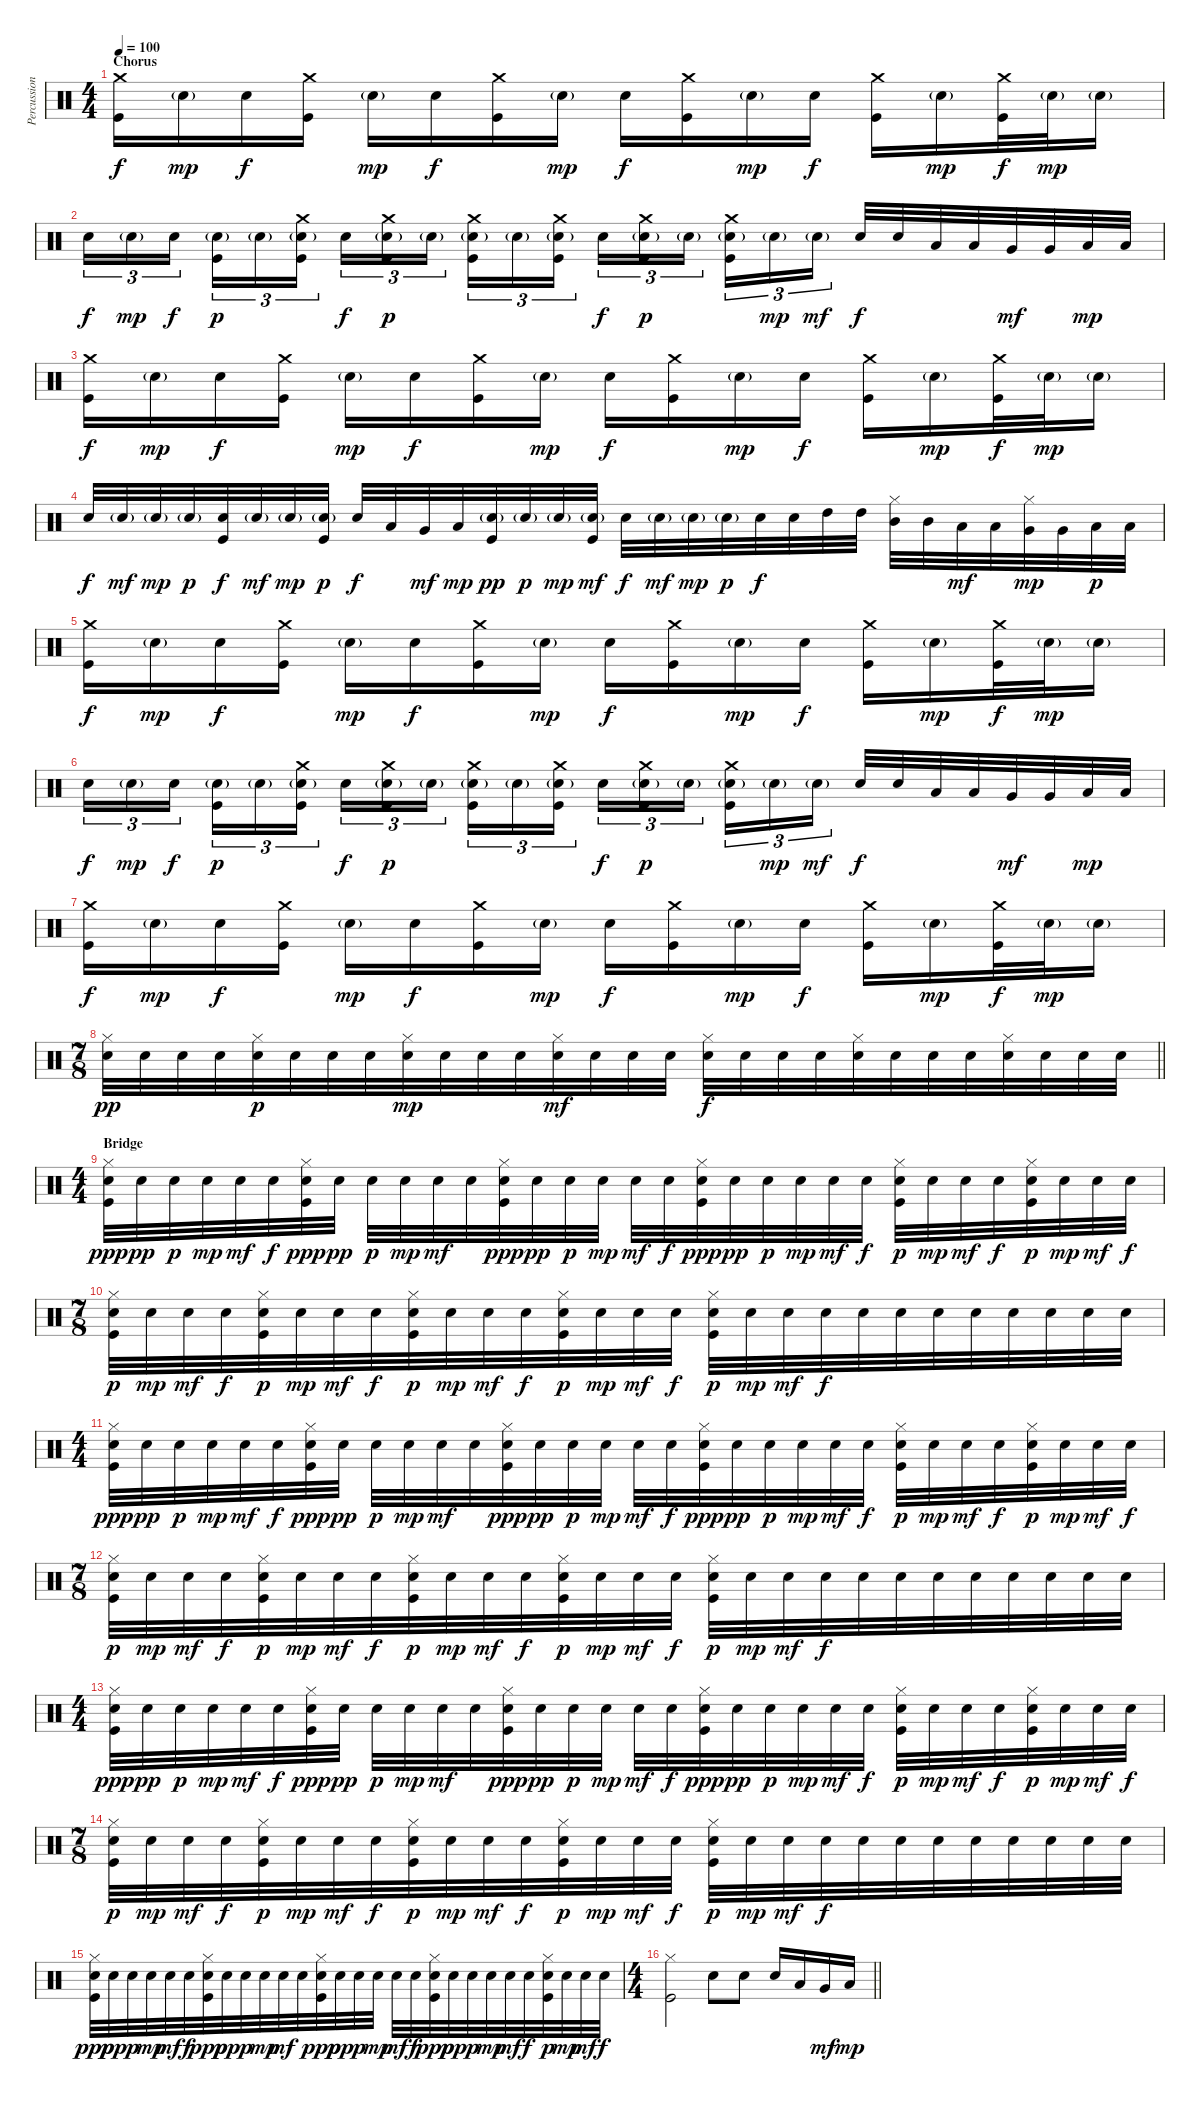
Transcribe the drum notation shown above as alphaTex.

\track ("Percussion" "Percussion") {instrument percussion}
\staff {score}
\articulation defaults
\ts (4 4)
\section ("" "Chorus")
\tempo 100
\clef neutral
\ks c
("Crash medium (hit)" "Kick (hit)").16{dy f} "Snare (hit) 2"{g}.16{dy mp} "Snare (hit) 2".16{dy f} ("Crash medium (hit)" "Kick (hit)").16 "Snare (hit) 2"{g}.16{dy mp} "Snare (hit) 2".16{dy f} ("Crash medium (hit)" "Kick (hit)").16 "Snare (hit) 2"{g}.16{dy mp} "Snare (hit) 2".16{dy f} ("Crash medium (hit)" "Kick (hit)").16 "Snare (hit) 2"{g}.16{dy mp} "Snare (hit) 2".16{dy f} ("Crash medium (hit)" "Kick (hit)").16 "Snare (hit) 2"{g}.16{dy mp} ("Crash medium (hit)" "Kick (hit)").32{dy f} "Snare (hit) 2"{g}.32{dy mp} "Snare (hit) 2"{g}.16 |
"Snare (hit) 2".16{tu (3 2) dy f} "Snare (hit) 2"{g}.16{tu (3 2) dy mp} "Snare (hit) 2".16{tu (3 2) dy f beam splitsecondary} ("Snare (hit) 2"{g} "Kick (hit)").16{tu (3 2) dy p} "Snare (hit) 2"{g}.16{tu (3 2)} ("Crash medium (hit)" "Snare (hit) 2"{g} "Kick (hit)").16{tu (3 2)} "Snare (hit) 2".16{tu (3 2) dy f} ("Crash medium (hit)" "Snare (hit) 2"{g} "Kick (hit)").16{tu (3 2) dy p} "Snare (hit) 2"{g}.16{tu (3 2) beam splitsecondary} ("Crash medium (hit)" "Snare (hit) 2"{g} "Kick (hit)").16{tu (3 2)} "Snare (hit) 2"{g}.16{tu (3 2)} ("Crash medium (hit)" "Snare (hit) 2"{g} "Kick (hit)").16{tu (3 2)} "Snare (hit) 2".16{tu (3 2) dy f} ("Crash medium (hit)" "Snare (hit) 2"{g} "Kick (hit)").16{tu (3 2) dy p} "Snare (hit) 2"{g}.16{tu (3 2) beam splitsecondary} ("Crash medium (hit)" "Snare (hit) 2"{g} "Kick (hit)").16{tu (3 2)} "Snare (hit) 2"{g}.16{tu (3 2) dy mp} "Snare (hit) 2"{g}.16{tu (3 2) dy mf} "Snare (hit) 2".32{dy f} "Snare (hit) 2".32 "Low Tom (hit)".32 "Low Tom (hit)".32 "Very Low Tom (hit)".32{dy mf} "Very Low Tom (hit)".32 "Low Floor Tom (hit)".32{dy mp} "Low Floor Tom (hit)".32 |
("Crash medium (hit)" "Kick (hit)").16{dy f} "Snare (hit) 2"{g}.16{dy mp} "Snare (hit) 2".16{dy f} ("Crash medium (hit)" "Kick (hit)").16 "Snare (hit) 2"{g}.16{dy mp} "Snare (hit) 2".16{dy f} ("Crash medium (hit)" "Kick (hit)").16 "Snare (hit) 2"{g}.16{dy mp} "Snare (hit) 2".16{dy f} ("Crash medium (hit)" "Kick (hit)").16 "Snare (hit) 2"{g}.16{dy mp} "Snare (hit) 2".16{dy f} ("Crash medium (hit)" "Kick (hit)").16 "Snare (hit) 2"{g}.16{dy mp} ("Crash medium (hit)" "Kick (hit)").32{dy f} "Snare (hit) 2"{g}.32{dy mp} "Snare (hit) 2"{g}.16 |
"Snare (hit) 2".32{dy f} "Snare (hit) 2"{g}.32{dy mf} "Snare (hit) 2"{g}.32{dy mp} "Snare (hit) 2"{g}.32{dy p} ("Snare (hit) 2" "Kick (hit)").32{dy f} "Snare (hit) 2"{g}.32{dy mf} "Snare (hit) 2"{g}.32{dy mp} ("Snare (hit) 2"{g} "Kick (hit)").32{dy p} "Snare (hit) 2".32{dy f} "Low Tom (hit)".32 "Very Low Tom (hit)".32{dy mf} "Low Floor Tom (hit)".32{dy mp} ("Snare (hit) 2"{g} "Kick (hit)").32{dy pp} "Snare (hit) 2"{g}.32{dy p} "Snare (hit) 2"{g}.32{dy mp} ("Snare (hit) 2"{g} "Kick (hit)").32{dy mf} "Snare (hit) 2".32{dy f} "Snare (hit) 2"{g}.32{dy mf} "Snare (hit) 2"{g}.32{dy mp} "Snare (hit) 2"{g}.32{dy p} "Snare (hit) 2".32{dy f} "Snare (hit) 2".32 "High Tom (hit)".32 "High Tom (hit)".32 ("Hi-Hat (closed)" "Mid Tom (hit)").32 "Mid Tom (hit)".32 "Low Tom (hit)".32{dy mf} "Low Tom (hit)".32 ("Hi-Hat (closed)" "Very Low Tom (hit)").32{dy mp} "Very Low Tom (hit)".32 "Low Floor Tom (hit)".32{dy p} "Low Floor Tom (hit)".32 |
("Crash medium (hit)" "Kick (hit)").16{dy f} "Snare (hit) 2"{g}.16{dy mp} "Snare (hit) 2".16{dy f} ("Crash medium (hit)" "Kick (hit)").16 "Snare (hit) 2"{g}.16{dy mp} "Snare (hit) 2".16{dy f} ("Crash medium (hit)" "Kick (hit)").16 "Snare (hit) 2"{g}.16{dy mp} "Snare (hit) 2".16{dy f} ("Crash medium (hit)" "Kick (hit)").16 "Snare (hit) 2"{g}.16{dy mp} "Snare (hit) 2".16{dy f} ("Crash medium (hit)" "Kick (hit)").16 "Snare (hit) 2"{g}.16{dy mp} ("Crash medium (hit)" "Kick (hit)").32{dy f} "Snare (hit) 2"{g}.32{dy mp} "Snare (hit) 2"{g}.16 |
"Snare (hit) 2".16{tu (3 2) dy f} "Snare (hit) 2"{g}.16{tu (3 2) dy mp} "Snare (hit) 2".16{tu (3 2) dy f beam splitsecondary} ("Snare (hit) 2"{g} "Kick (hit)").16{tu (3 2) dy p} "Snare (hit) 2"{g}.16{tu (3 2)} ("Crash medium (hit)" "Snare (hit) 2"{g} "Kick (hit)").16{tu (3 2)} "Snare (hit) 2".16{tu (3 2) dy f} ("Crash medium (hit)" "Snare (hit) 2"{g} "Kick (hit)").16{tu (3 2) dy p} "Snare (hit) 2"{g}.16{tu (3 2) beam splitsecondary} ("Crash medium (hit)" "Snare (hit) 2"{g} "Kick (hit)").16{tu (3 2)} "Snare (hit) 2"{g}.16{tu (3 2)} ("Crash medium (hit)" "Snare (hit) 2"{g} "Kick (hit)").16{tu (3 2)} "Snare (hit) 2".16{tu (3 2) dy f} ("Crash medium (hit)" "Snare (hit) 2"{g} "Kick (hit)").16{tu (3 2) dy p} "Snare (hit) 2"{g}.16{tu (3 2) beam splitsecondary} ("Crash medium (hit)" "Snare (hit) 2"{g} "Kick (hit)").16{tu (3 2)} "Snare (hit) 2"{g}.16{tu (3 2) dy mp} "Snare (hit) 2"{g}.16{tu (3 2) dy mf} "Snare (hit) 2".32{dy f} "Snare (hit) 2".32 "Low Tom (hit)".32 "Low Tom (hit)".32 "Very Low Tom (hit)".32{dy mf} "Very Low Tom (hit)".32 "Low Floor Tom (hit)".32{dy mp} "Low Floor Tom (hit)".32 |
("Crash medium (hit)" "Kick (hit)").16{dy f} "Snare (hit) 2"{g}.16{dy mp} "Snare (hit) 2".16{dy f} ("Crash medium (hit)" "Kick (hit)").16 "Snare (hit) 2"{g}.16{dy mp} "Snare (hit) 2".16{dy f} ("Crash medium (hit)" "Kick (hit)").16 "Snare (hit) 2"{g}.16{dy mp} "Snare (hit) 2".16{dy f} ("Crash medium (hit)" "Kick (hit)").16 "Snare (hit) 2"{g}.16{dy mp} "Snare (hit) 2".16{dy f} ("Crash medium (hit)" "Kick (hit)").16 "Snare (hit) 2"{g}.16{dy mp} ("Crash medium (hit)" "Kick (hit)").32{dy f} "Snare (hit) 2"{g}.32{dy mp} "Snare (hit) 2"{g}.16 |
\ts (7 8)
\barLineRight lightlight
("Hi-Hat (closed)" "Snare (hit) 2").32{dy pp} "Snare (hit) 2".32 "Snare (hit) 2".32 "Snare (hit) 2".32 ("Hi-Hat (closed)" "Snare (hit) 2").32{dy p} "Snare (hit) 2".32 "Snare (hit) 2".32 "Snare (hit) 2".32 ("Hi-Hat (closed)" "Snare (hit) 2").32{dy mp} "Snare (hit) 2".32 "Snare (hit) 2".32 "Snare (hit) 2".32 ("Hi-Hat (closed)" "Snare (hit) 2").32{dy mf} "Snare (hit) 2".32 "Snare (hit) 2".32 "Snare (hit) 2".32 ("Hi-Hat (closed)" "Snare (hit) 2").32{dy f} "Snare (hit) 2".32 "Snare (hit) 2".32 "Snare (hit) 2".32 ("Hi-Hat (closed)" "Snare (hit) 2").32 "Snare (hit) 2".32 "Snare (hit) 2".32 "Snare (hit) 2".32 ("Hi-Hat (closed)" "Snare (hit) 2").32 "Snare (hit) 2".32 "Snare (hit) 2".32 "Snare (hit) 2".32 |
\ts (4 4)
\section ("" "Bridge")
("Hi-Hat (closed)" "Snare (hit) 2" "Kick (hit)").32{dy ppp} "Snare (hit) 2".32{dy pp} "Snare (hit) 2".32{dy p} "Snare (hit) 2".32{dy mp} "Snare (hit) 2".32{dy mf} "Snare (hit) 2".32{dy f} ("Hi-Hat (closed)" "Snare (hit) 2" "Kick (hit)").32{dy ppp} "Snare (hit) 2".32{dy pp} "Snare (hit) 2".32{dy p} "Snare (hit) 2".32{dy mp} "Snare (hit) 2".32{dy mf} "Snare (hit) 2".32 ("Hi-Hat (closed)" "Snare (hit) 2" "Kick (hit)").32{dy ppp} "Snare (hit) 2".32{dy pp} "Snare (hit) 2".32{dy p} "Snare (hit) 2".32{dy mp} "Snare (hit) 2".32{dy mf} "Snare (hit) 2".32{dy f} ("Hi-Hat (closed)" "Snare (hit) 2" "Kick (hit)").32{dy ppp} "Snare (hit) 2".32{dy pp} "Snare (hit) 2".32{dy p} "Snare (hit) 2".32{dy mp} "Snare (hit) 2".32{dy mf} "Snare (hit) 2".32{dy f} ("Hi-Hat (closed)" "Snare (hit) 2" "Kick (hit)").32{dy p} "Snare (hit) 2".32{dy mp} "Snare (hit) 2".32{dy mf} "Snare (hit) 2".32{dy f} ("Hi-Hat (closed)" "Snare (hit) 2" "Kick (hit)").32{dy p} "Snare (hit) 2".32{dy mp} "Snare (hit) 2".32{dy mf} "Snare (hit) 2".32{dy f} |
\ts (7 8)
("Hi-Hat (closed)" "Snare (hit) 2" "Kick (hit)").32{dy p} "Snare (hit) 2".32{dy mp} "Snare (hit) 2".32{dy mf} "Snare (hit) 2".32{dy f} ("Hi-Hat (closed)" "Snare (hit) 2" "Kick (hit)").32{dy p} "Snare (hit) 2".32{dy mp} "Snare (hit) 2".32{dy mf} "Snare (hit) 2".32{dy f} ("Hi-Hat (closed)" "Snare (hit) 2" "Kick (hit)").32{dy p} "Snare (hit) 2".32{dy mp} "Snare (hit) 2".32{dy mf} "Snare (hit) 2".32{dy f} ("Hi-Hat (closed)" "Snare (hit) 2" "Kick (hit)").32{dy p} "Snare (hit) 2".32{dy mp} "Snare (hit) 2".32{dy mf} "Snare (hit) 2".32{dy f} ("Hi-Hat (closed)" "Snare (hit) 2" "Kick (hit)").32{dy p} "Snare (hit) 2".32{dy mp} "Snare (hit) 2".32{dy mf} "Snare (hit) 2".32{dy f} "Snare (hit) 2".32 "Snare (hit) 2".32 "Snare (hit) 2".32 "Snare (hit) 2".32 "Snare (hit) 2".32 "Snare (hit) 2".32 "Snare (hit) 2".32 "Snare (hit) 2".32 |
\ts (4 4)
("Hi-Hat (closed)" "Snare (hit) 2" "Kick (hit)").32{dy ppp} "Snare (hit) 2".32{dy pp} "Snare (hit) 2".32{dy p} "Snare (hit) 2".32{dy mp} "Snare (hit) 2".32{dy mf} "Snare (hit) 2".32{dy f} ("Hi-Hat (closed)" "Snare (hit) 2" "Kick (hit)").32{dy ppp} "Snare (hit) 2".32{dy pp} "Snare (hit) 2".32{dy p} "Snare (hit) 2".32{dy mp} "Snare (hit) 2".32{dy mf} "Snare (hit) 2".32 ("Hi-Hat (closed)" "Snare (hit) 2" "Kick (hit)").32{dy ppp} "Snare (hit) 2".32{dy pp} "Snare (hit) 2".32{dy p} "Snare (hit) 2".32{dy mp} "Snare (hit) 2".32{dy mf} "Snare (hit) 2".32{dy f} ("Hi-Hat (closed)" "Snare (hit) 2" "Kick (hit)").32{dy ppp} "Snare (hit) 2".32{dy pp} "Snare (hit) 2".32{dy p} "Snare (hit) 2".32{dy mp} "Snare (hit) 2".32{dy mf} "Snare (hit) 2".32{dy f} ("Hi-Hat (closed)" "Snare (hit) 2" "Kick (hit)").32{dy p} "Snare (hit) 2".32{dy mp} "Snare (hit) 2".32{dy mf} "Snare (hit) 2".32{dy f} ("Hi-Hat (closed)" "Snare (hit) 2" "Kick (hit)").32{dy p} "Snare (hit) 2".32{dy mp} "Snare (hit) 2".32{dy mf} "Snare (hit) 2".32{dy f} |
\ts (7 8)
("Hi-Hat (closed)" "Snare (hit) 2" "Kick (hit)").32{dy p} "Snare (hit) 2".32{dy mp} "Snare (hit) 2".32{dy mf} "Snare (hit) 2".32{dy f} ("Hi-Hat (closed)" "Snare (hit) 2" "Kick (hit)").32{dy p} "Snare (hit) 2".32{dy mp} "Snare (hit) 2".32{dy mf} "Snare (hit) 2".32{dy f} ("Hi-Hat (closed)" "Snare (hit) 2" "Kick (hit)").32{dy p} "Snare (hit) 2".32{dy mp} "Snare (hit) 2".32{dy mf} "Snare (hit) 2".32{dy f} ("Hi-Hat (closed)" "Snare (hit) 2" "Kick (hit)").32{dy p} "Snare (hit) 2".32{dy mp} "Snare (hit) 2".32{dy mf} "Snare (hit) 2".32{dy f} ("Hi-Hat (closed)" "Snare (hit) 2" "Kick (hit)").32{dy p} "Snare (hit) 2".32{dy mp} "Snare (hit) 2".32{dy mf} "Snare (hit) 2".32{dy f} "Snare (hit) 2".32 "Snare (hit) 2".32 "Snare (hit) 2".32 "Snare (hit) 2".32 "Snare (hit) 2".32 "Snare (hit) 2".32 "Snare (hit) 2".32 "Snare (hit) 2".32 |
\ts (4 4)
("Hi-Hat (closed)" "Snare (hit) 2" "Kick (hit)").32{dy ppp} "Snare (hit) 2".32{dy pp} "Snare (hit) 2".32{dy p} "Snare (hit) 2".32{dy mp} "Snare (hit) 2".32{dy mf} "Snare (hit) 2".32{dy f} ("Hi-Hat (closed)" "Snare (hit) 2" "Kick (hit)").32{dy ppp} "Snare (hit) 2".32{dy pp} "Snare (hit) 2".32{dy p} "Snare (hit) 2".32{dy mp} "Snare (hit) 2".32{dy mf} "Snare (hit) 2".32 ("Hi-Hat (closed)" "Snare (hit) 2" "Kick (hit)").32{dy ppp} "Snare (hit) 2".32{dy pp} "Snare (hit) 2".32{dy p} "Snare (hit) 2".32{dy mp} "Snare (hit) 2".32{dy mf} "Snare (hit) 2".32{dy f} ("Hi-Hat (closed)" "Snare (hit) 2" "Kick (hit)").32{dy ppp} "Snare (hit) 2".32{dy pp} "Snare (hit) 2".32{dy p} "Snare (hit) 2".32{dy mp} "Snare (hit) 2".32{dy mf} "Snare (hit) 2".32{dy f} ("Hi-Hat (closed)" "Snare (hit) 2" "Kick (hit)").32{dy p} "Snare (hit) 2".32{dy mp} "Snare (hit) 2".32{dy mf} "Snare (hit) 2".32{dy f} ("Hi-Hat (closed)" "Snare (hit) 2" "Kick (hit)").32{dy p} "Snare (hit) 2".32{dy mp} "Snare (hit) 2".32{dy mf} "Snare (hit) 2".32{dy f} |
\ts (7 8)
("Hi-Hat (closed)" "Snare (hit) 2" "Kick (hit)").32{dy p} "Snare (hit) 2".32{dy mp} "Snare (hit) 2".32{dy mf} "Snare (hit) 2".32{dy f} ("Hi-Hat (closed)" "Snare (hit) 2" "Kick (hit)").32{dy p} "Snare (hit) 2".32{dy mp} "Snare (hit) 2".32{dy mf} "Snare (hit) 2".32{dy f} ("Hi-Hat (closed)" "Snare (hit) 2" "Kick (hit)").32{dy p} "Snare (hit) 2".32{dy mp} "Snare (hit) 2".32{dy mf} "Snare (hit) 2".32{dy f} ("Hi-Hat (closed)" "Snare (hit) 2" "Kick (hit)").32{dy p} "Snare (hit) 2".32{dy mp} "Snare (hit) 2".32{dy mf} "Snare (hit) 2".32{dy f} ("Hi-Hat (closed)" "Snare (hit) 2" "Kick (hit)").32{dy p} "Snare (hit) 2".32{dy mp} "Snare (hit) 2".32{dy mf} "Snare (hit) 2".32{dy f} "Snare (hit) 2".32 "Snare (hit) 2".32 "Snare (hit) 2".32 "Snare (hit) 2".32 "Snare (hit) 2".32 "Snare (hit) 2".32 "Snare (hit) 2".32 "Snare (hit) 2".32 |
("Hi-Hat (closed)" "Snare (hit) 2" "Kick (hit)").32{dy ppp} "Snare (hit) 2".32{dy pp} "Snare (hit) 2".32{dy p} "Snare (hit) 2".32{dy mp} "Snare (hit) 2".32{dy mf} "Snare (hit) 2".32{dy f} ("Hi-Hat (closed)" "Snare (hit) 2" "Kick (hit)").32{dy ppp} "Snare (hit) 2".32{dy pp} "Snare (hit) 2".32{dy p} "Snare (hit) 2".32{dy mp} "Snare (hit) 2".32{dy mf} "Snare (hit) 2".32 ("Hi-Hat (closed)" "Snare (hit) 2" "Kick (hit)").32{dy ppp} "Snare (hit) 2".32{dy pp} "Snare (hit) 2".32{dy p} "Snare (hit) 2".32{dy mp} "Snare (hit) 2".32{dy mf} "Snare (hit) 2".32{dy f} ("Hi-Hat (closed)" "Snare (hit) 2" "Kick (hit)").32{dy ppp} "Snare (hit) 2".32{dy pp} "Snare (hit) 2".32{dy p} "Snare (hit) 2".32{dy mp} "Snare (hit) 2".32{dy mf} "Snare (hit) 2".32{dy f} ("Hi-Hat (closed)" "Snare (hit) 2" "Kick (hit)").32{dy p} "Snare (hit) 2".32{dy mp} "Snare (hit) 2".32{dy mf} "Snare (hit) 2".32{dy f} |
\ts (4 4)
\barLineRight lightlight
("Hi-Hat (closed)" "Kick (hit)").2 "Snare (hit) 2".8 "Snare (hit) 2".8 "Snare (hit) 2".16 "Low Tom (hit)".16 "Very Low Tom (hit)".16{dy mf} "Low Floor Tom (hit)".16{dy mp}
